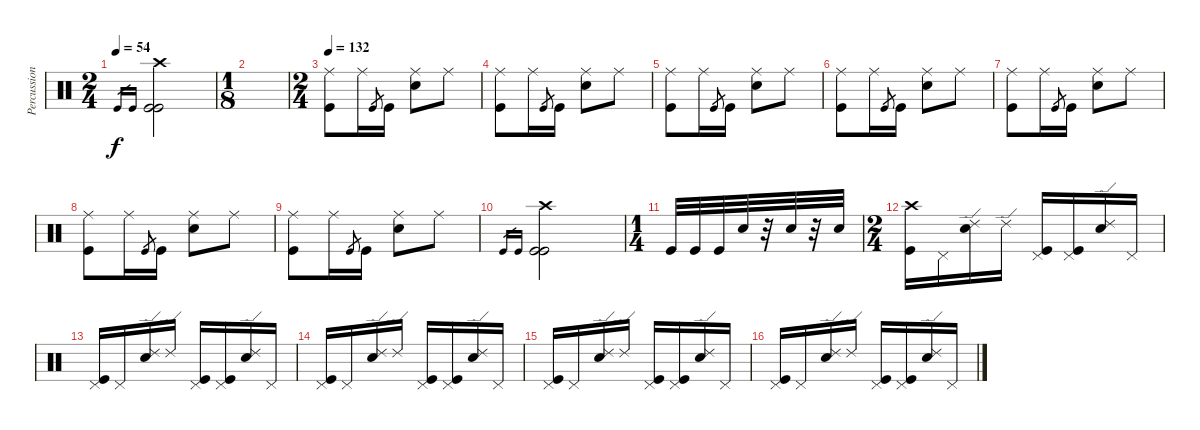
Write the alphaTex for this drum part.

\track ("Percussion" "Percussion") {instrument percussion}
\staff {score}
\articulation defaults
\ts (2 4)
\tempo 54
\clef neutral
\ks c "Kick (hit)".16{gr dy f} "Kick (hit)".16{gr}
("Crash high (hit)" "Kick (hit)" "Kick (hit)").2 |
\ts (1 8)
|
\ts (2 4)
\tempo 132
("Ride (middle)" "Kick (hit)").8 "Ride (middle)".16 "Kick (hit)".8{gr} "Kick (hit)".16 ("Ride (middle)" "Electric Snare (hit)").8 "Ride (middle)".8 |
("Ride (middle)" "Kick (hit)").8 "Ride (middle)".16 "Kick (hit)".8{gr} "Kick (hit)".16 ("Ride (middle)" "Electric Snare (hit)").8 "Ride (middle)".8 |
("Ride (middle)" "Kick (hit)").8 "Ride (middle)".16 "Kick (hit)".8{gr} "Kick (hit)".16 ("Ride (middle)" "Electric Snare (hit)").8 "Ride (middle)".8 |
("Ride (middle)" "Kick (hit)").8 "Ride (middle)".16 "Kick (hit)".8{gr} "Kick (hit)".16 ("Ride (middle)" "Electric Snare (hit)").8 "Ride (middle)".8 |
("Ride (middle)" "Kick (hit)").8 "Ride (middle)".16 "Kick (hit)".8{gr} "Kick (hit)".16 ("Ride (middle)" "Electric Snare (hit)").8 "Ride (middle)".8 |
("Ride (middle)" "Kick (hit)").8 "Ride (middle)".16 "Kick (hit)".8{gr} "Kick (hit)".16 ("Ride (middle)" "Electric Snare (hit)").8 "Ride (middle)".8 |
("Ride (middle)" "Kick (hit)").8 "Ride (middle)".16 "Kick (hit)".8{gr} "Kick (hit)".16 ("Ride (middle)" "Electric Snare (hit)").8 "Ride (middle)".8 |
"Kick (hit)".16{gr} "Kick (hit)".16{gr} ("Crash high (hit)" "Kick (hit)" "Kick (hit)").2 |
\ts (1 4)
"Kick (hit)".32 "Kick (hit)".32 "Kick (hit)".32 "Electric Snare (hit)".32 r.32 "Electric Snare (hit)".32 r.32 "Electric Snare (hit)".32 |
\ts (2 4)
("Crash high (hit)" "Kick (hit)").16 "Pedal Hi-Hat (hit)".16 ("Ride (edge) 2" "Electric Snare (hit)").16 "Ride (edge) 2".16 ("Pedal Hi-Hat (hit)" "Kick (hit)").16 ("Pedal Hi-Hat (hit)" "Kick (hit)").16 ("Ride (edge) 2" "Electric Snare (hit)").16 "Pedal Hi-Hat (hit)".16 |
("Pedal Hi-Hat (hit)" "Kick (hit)").16 "Pedal Hi-Hat (hit)".16 ("Ride (edge) 2" "Electric Snare (hit)").16 "Ride (edge) 2".16 ("Pedal Hi-Hat (hit)" "Kick (hit)").16 ("Pedal Hi-Hat (hit)" "Kick (hit)").16 ("Ride (edge) 2" "Electric Snare (hit)").16 "Pedal Hi-Hat (hit)".16 |
("Pedal Hi-Hat (hit)" "Kick (hit)").16 "Pedal Hi-Hat (hit)".16 ("Ride (edge) 2" "Electric Snare (hit)").16 "Ride (edge) 2".16 ("Pedal Hi-Hat (hit)" "Kick (hit)").16 ("Pedal Hi-Hat (hit)" "Kick (hit)").16 ("Ride (edge) 2" "Electric Snare (hit)").16 "Pedal Hi-Hat (hit)".16 |
("Pedal Hi-Hat (hit)" "Kick (hit)").16 "Pedal Hi-Hat (hit)".16 ("Ride (edge) 2" "Electric Snare (hit)").16 "Ride (edge) 2".16 ("Pedal Hi-Hat (hit)" "Kick (hit)").16 ("Pedal Hi-Hat (hit)" "Kick (hit)").16 ("Ride (edge) 2" "Electric Snare (hit)").16 "Pedal Hi-Hat (hit)".16 |
("Pedal Hi-Hat (hit)" "Kick (hit)").16 "Pedal Hi-Hat (hit)".16 ("Ride (edge) 2" "Electric Snare (hit)").16 "Ride (edge) 2".16 ("Pedal Hi-Hat (hit)" "Kick (hit)").16 ("Pedal Hi-Hat (hit)" "Kick (hit)").16 ("Ride (edge) 2" "Electric Snare (hit)").16 "Pedal Hi-Hat (hit)".16
